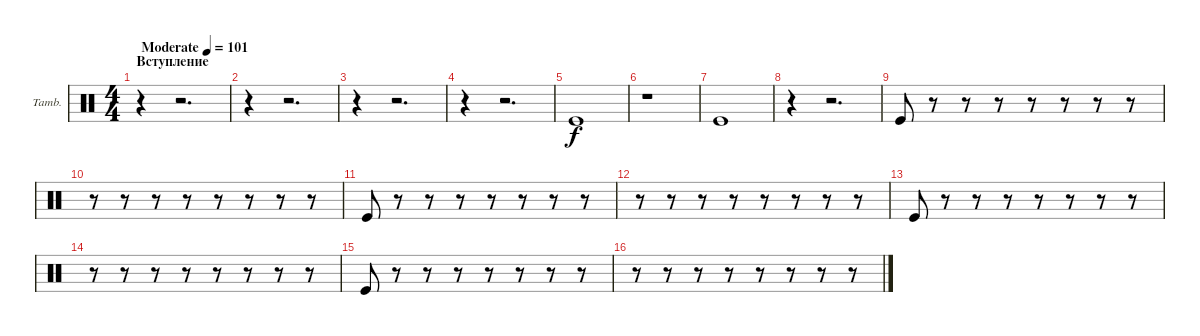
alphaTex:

\bracketExtendMode groupsimilarinstruments
\firstSystemTrackNameOrientation horizontal
\otherSystemsTrackNameOrientation horizontal
\track ("Tambourine" "Tamb.") {instrument percussion}
\staff {score}
\articulation defaults
\ts (4 4)
\beaming (8 2 2 2 2)
\section ("" "Вступление")
\tempo (101 "Moderate")
\clef neutral
\ks c
r.4{dy f} r.2{d} |
r.4 r.2{d} |
r.4 r.2{d} |
r.4 r.2{d} |
"Kick (hit)".1 |
r.1 |
"Kick (hit)".1 |
r.4 r.2{d} |
"Kick (hit)".8 r.8 r.8 r.8 r.8 r.8 r.8 r.8 |
r.8 r.8 r.8 r.8 r.8 r.8 r.8 r.8 |
"Kick (hit)".8 r.8 r.8 r.8 r.8 r.8 r.8 r.8 |
r.8 r.8 r.8 r.8 r.8 r.8 r.8 r.8 |
"Kick (hit)".8 r.8 r.8 r.8 r.8 r.8 r.8 r.8 |
r.8 r.8 r.8 r.8 r.8 r.8 r.8 r.8 |
"Kick (hit)".8 r.8 r.8 r.8 r.8 r.8 r.8 r.8 |
r.8 r.8 r.8 r.8 r.8 r.8 r.8 r.8
